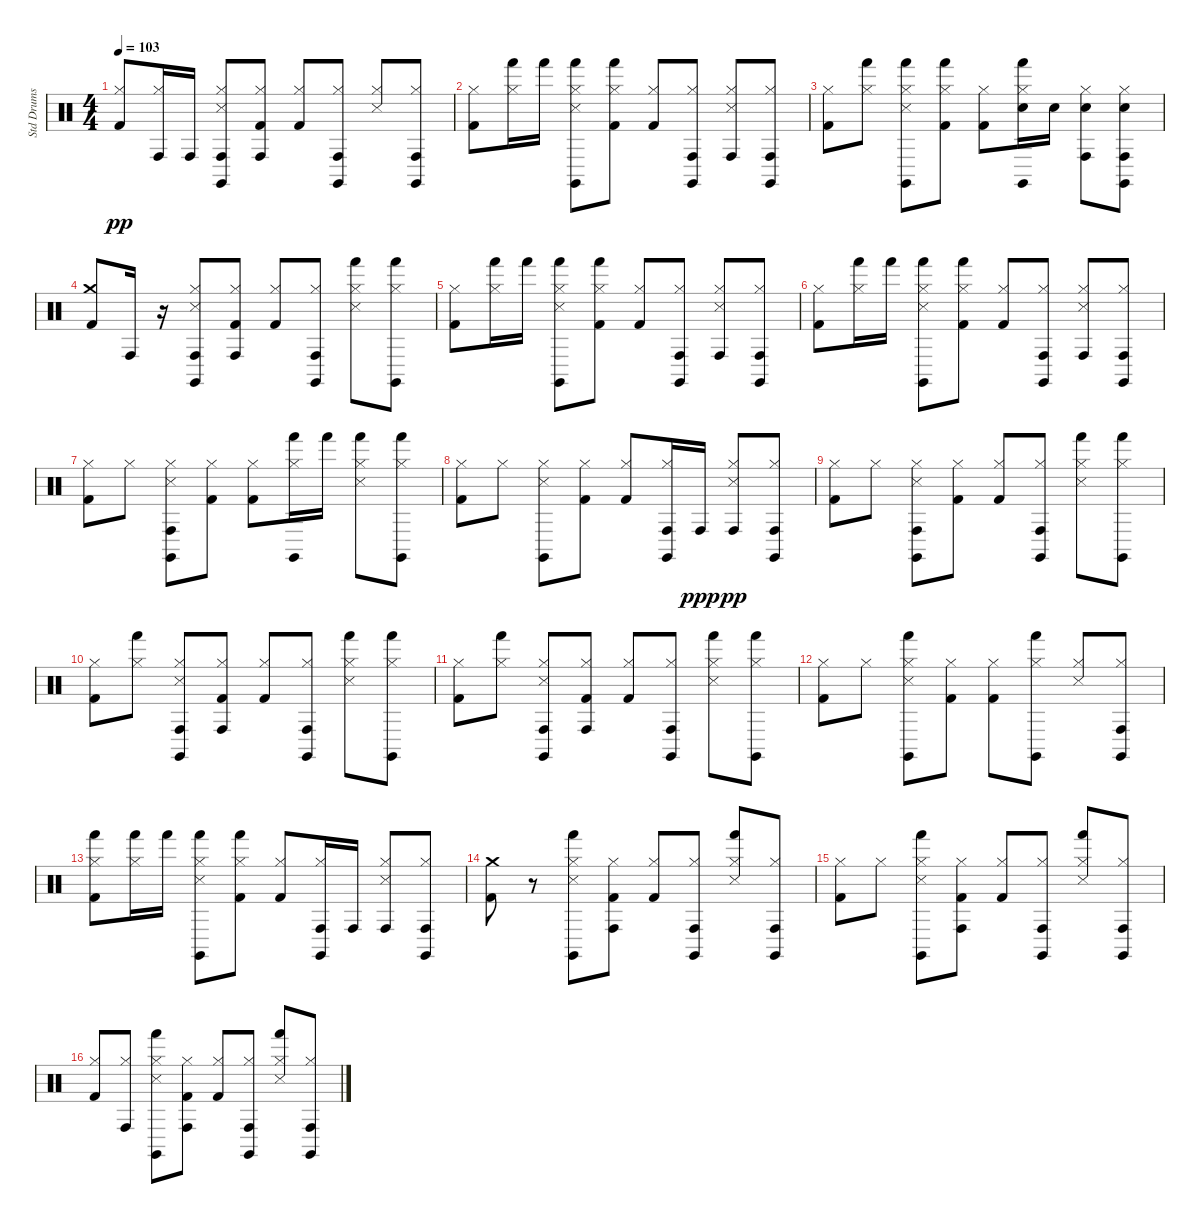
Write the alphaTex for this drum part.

\track ("Std Drums " "Std Drums ") {instrument percussion}
\staff {score}
\articulation defaults
\ts (4 4)
\tempo 103
\clef neutral
\ks c
("Hi-Hat (closed)" "Kick (hit) 2").8{dy pp} ("Conga high (hit)" "Hi-Hat (closed)").16 "Conga high (hit)".16 ("Hi-Hat (closed)" "Claves (hit)" "Conga high (hit)" "Snare (side stick) 3").8 ("Hi-Hat (closed)" "Kick (hit) 2" "Conga high (hit)").8 ("Hi-Hat (closed)" "Kick (hit) 2").8 ("Conga high (hit)" "Claves (hit)" "Hi-Hat (closed)").8 ("Snare (side stick) 3" "Hi-Hat (closed)").8 ("Claves (hit)" "Conga high (hit)" "Hi-Hat (closed)").8 |
("Kick (hit) 2" "Hi-Hat (closed)").8 ("Hi-Hat (closed)" "Hand (hit)").16 "Hand (hit)".16 ("Snare (side stick) 3" "Hand (hit)" "Hi-Hat (closed)" "Claves (hit)").8 ("Hand (hit)" "Kick (hit) 2" "Hi-Hat (closed)").8 ("Hi-Hat (closed)" "Kick (hit) 2").8 ("Conga high (hit)" "Hi-Hat (closed)" "Claves (hit)").8 ("Hi-Hat (closed)" "Snare (side stick) 3" "Conga high (hit)").8 ("Conga high (hit)" "Hi-Hat (closed)" "Claves (hit)").8 |
("Kick (hit) 2" "Hi-Hat (closed)").8 ("Hi-Hat (closed)" "Hand (hit)").8 ("Snare (side stick) 3" "Claves (hit)" "Hi-Hat (closed)" "Hand (hit)").8 ("Hi-Hat (closed)" "Kick (hit) 2" "Hand (hit)").8 ("Kick (hit) 2" "Hi-Hat (closed)").8 ("Hand (hit)" "Hi-Hat (closed)" "Snare (hit) 2" "Claves (hit)").16 "Snare (hit) 2".16 ("Hi-Hat (closed)" "Conga high (hit)" "Snare (hit) 2").8 ("Claves (hit)" "Hi-Hat (closed)" "Snare (hit) 2" "Conga high (hit)").8 |
("Crash medium (hit)" "Kick (hit) 2").8 "Conga high (hit)".16 r.16 ("Conga high (hit)" "Claves (hit)" "Hi-Hat (closed)" "Snare (side stick) 3").8 ("Conga high (hit)" "Hi-Hat (closed)" "Kick (hit) 2").8 ("Hi-Hat (closed)" "Kick (hit) 2").8 ("Claves (hit)" "Hi-Hat (closed)" "Conga high (hit)").8 ("Hi-Hat (closed)" "Hand (hit)" "Snare (side stick) 3").8 ("Claves (hit)" "Hi-Hat (closed)" "Hand (hit)").8 |
("Kick (hit) 2" "Hi-Hat (closed)").8 ("Hi-Hat (closed)" "Hand (hit)").16 "Hand (hit)".16 ("Hi-Hat (closed)" "Claves (hit)" "Snare (side stick) 3" "Hand (hit)").8 ("Hand (hit)" "Kick (hit) 2" "Hi-Hat (closed)").8 ("Kick (hit) 2" "Hi-Hat (closed)").8 ("Claves (hit)" "Conga high (hit)" "Hi-Hat (closed)").8 ("Conga high (hit)" "Snare (side stick) 3" "Hi-Hat (closed)").8 ("Claves (hit)" "Conga high (hit)" "Hi-Hat (closed)").8 |
("Kick (hit) 2" "Hi-Hat (closed)").8 ("Hi-Hat (closed)" "Hand (hit)").16 "Hand (hit)".16 ("Claves (hit)" "Hi-Hat (closed)" "Snare (side stick) 3" "Hand (hit)").8 ("Hand (hit)" "Hi-Hat (closed)" "Kick (hit) 2").8 ("Kick (hit) 2" "Hi-Hat (closed)").8 ("Hi-Hat (closed)" "Conga high (hit)" "Claves (hit)").8 ("Conga high (hit)" "Hi-Hat (closed)" "Snare (side stick) 3").8 ("Claves (hit)" "Hi-Hat (closed)" "Conga high (hit)").8 |
("Hi-Hat (closed)" "Kick (hit) 2").8 "Hi-Hat (closed)".8 ("Claves (hit)" "Snare (side stick) 3" "Conga high (hit)" "Hi-Hat (closed)").8 ("Hi-Hat (closed)" "Kick (hit) 2").8 ("Kick (hit) 2" "Hi-Hat (closed)").8 ("Hand (hit)" "Claves (hit)" "Hi-Hat (closed)").16 "Hand (hit)".16 ("Hand (hit)" "Hi-Hat (closed)" "Snare (side stick) 3").8 ("Hi-Hat (closed)" "Claves (hit)" "Hand (hit)").8 |
("Hi-Hat (closed)" "Kick (hit) 2").8 "Hi-Hat (closed)".8 ("Hi-Hat (closed)" "Snare (side stick) 3" "Claves (hit)").8 ("Kick (hit) 2" "Hi-Hat (closed)").8 ("Hi-Hat (closed)" "Kick (hit) 2").8 ("Claves (hit)" "Hi-Hat (closed)" "Conga high (hit)").16 "Conga high (hit)".16{dy ppp} ("Conga high (hit)" "Snare (side stick) 3" "Hi-Hat (closed)").8{dy pp} ("Conga high (hit)" "Claves (hit)" "Hi-Hat (closed)").8 |
("Hi-Hat (closed)" "Kick (hit) 2").8 "Hi-Hat (closed)".8 ("Claves (hit)" "Hi-Hat (closed)" "Snare (side stick) 3" "Conga high (hit)").8 ("Kick (hit) 2" "Hi-Hat (closed)").8 ("Kick (hit) 2" "Hi-Hat (closed)").8 ("Conga high (hit)" "Claves (hit)" "Hi-Hat (closed)").8 ("Snare (side stick) 3" "Hi-Hat (closed)" "Hand (hit)").8 ("Hand (hit)" "Hi-Hat (closed)" "Claves (hit)").8 |
("Kick (hit) 2" "Hi-Hat (closed)").8 ("Hi-Hat (closed)" "Hand (hit)").8 ("Hi-Hat (closed)" "Claves (hit)" "Snare (side stick) 3" "Conga high (hit)").8 ("Kick (hit) 2" "Hi-Hat (closed)" "Conga high (hit)").8 ("Kick (hit) 2" "Hi-Hat (closed)").8 ("Hi-Hat (closed)" "Conga high (hit)" "Claves (hit)").8 ("Hi-Hat (closed)" "Hand (hit)" "Snare (side stick) 3").8 ("Hand (hit)" "Hi-Hat (closed)" "Claves (hit)").8 |
("Hi-Hat (closed)" "Kick (hit) 2").8 ("Hand (hit)" "Hi-Hat (closed)").8 ("Hi-Hat (closed)" "Conga high (hit)" "Claves (hit)" "Snare (side stick) 3").8 ("Hi-Hat (closed)" "Conga high (hit)" "Kick (hit) 2").8 ("Hi-Hat (closed)" "Kick (hit) 2").8 ("Claves (hit)" "Conga high (hit)" "Hi-Hat (closed)").8 ("Hand (hit)" "Hi-Hat (closed)" "Snare (side stick) 3").8 ("Claves (hit)" "Hi-Hat (closed)" "Hand (hit)").8 |
("Hi-Hat (closed)" "Kick (hit) 2").8 "Hi-Hat (closed)".8 ("Hi-Hat (closed)" "Claves (hit)" "Hand (hit)" "Snare (side stick) 3").8 ("Hi-Hat (closed)" "Kick (hit) 2").8 ("Kick (hit) 2" "Hi-Hat (closed)").8 ("Hi-Hat (closed)" "Claves (hit)" "Hand (hit)").8 ("Snare (side stick) 3" "Hi-Hat (closed)").8 ("Hi-Hat (closed)" "Conga high (hit)" "Claves (hit)").8 |
("Hi-Hat (closed)" "Kick (hit) 2" "Hand (hit)").8 ("Hi-Hat (closed)" "Hand (hit)").16 "Hand (hit)".16 ("Snare (side stick) 3" "Hi-Hat (closed)" "Claves (hit)" "Hand (hit)").8 ("Hi-Hat (closed)" "Hand (hit)" "Kick (hit) 2").8 ("Kick (hit) 2" "Hi-Hat (closed)").8 ("Claves (hit)" "Conga high (hit)" "Hi-Hat (closed)").16 "Conga high (hit)".16 ("Snare (side stick) 3" "Hi-Hat (closed)" "Conga high (hit)").8 ("Claves (hit)" "Conga high (hit)" "Hi-Hat (closed)").8 |
("Kick (hit) 2" "Crash medium (hit)").8 r.8 ("Snare (side stick) 3" "Claves (hit)" "Hand (hit)" "Hi-Hat (closed)").8 ("Kick (hit) 2" "Hi-Hat (closed)" "Conga high (hit)").8 ("Kick (hit) 2" "Hi-Hat (closed)").8 ("Claves (hit)" "Hi-Hat (closed)" "Conga high (hit)").8 ("Hi-Hat (closed)" "Hand (hit)" "Snare (side stick) 3").8 ("Claves (hit)" "Conga high (hit)" "Hi-Hat (closed)").8 |
("Kick (hit) 2" "Hi-Hat (closed)").8 "Hi-Hat (closed)".8 ("Hand (hit)" "Hi-Hat (closed)" "Snare (side stick) 3" "Claves (hit)").8 ("Hi-Hat (closed)" "Conga high (hit)" "Kick (hit) 2").8 ("Hi-Hat (closed)" "Kick (hit) 2").8 ("Conga high (hit)" "Claves (hit)" "Hi-Hat (closed)").8 ("Snare (side stick) 3" "Hi-Hat (closed)" "Hand (hit)").8 ("Claves (hit)" "Hi-Hat (closed)" "Conga high (hit)").8 |
("Hi-Hat (closed)" "Kick (hit) 2").8 ("Conga high (hit)" "Hi-Hat (closed)").8 ("Hi-Hat (closed)" "Snare (side stick) 3" "Hand (hit)" "Claves (hit)").8 ("Hi-Hat (closed)" "Kick (hit) 2" "Conga high (hit)").8 ("Hi-Hat (closed)" "Kick (hit) 2").8 ("Claves (hit)" "Hi-Hat (closed)" "Conga high (hit)").8 ("Hi-Hat (closed)" "Hand (hit)" "Snare (side stick) 3").8 ("Conga high (hit)" "Claves (hit)" "Hi-Hat (closed)").8
